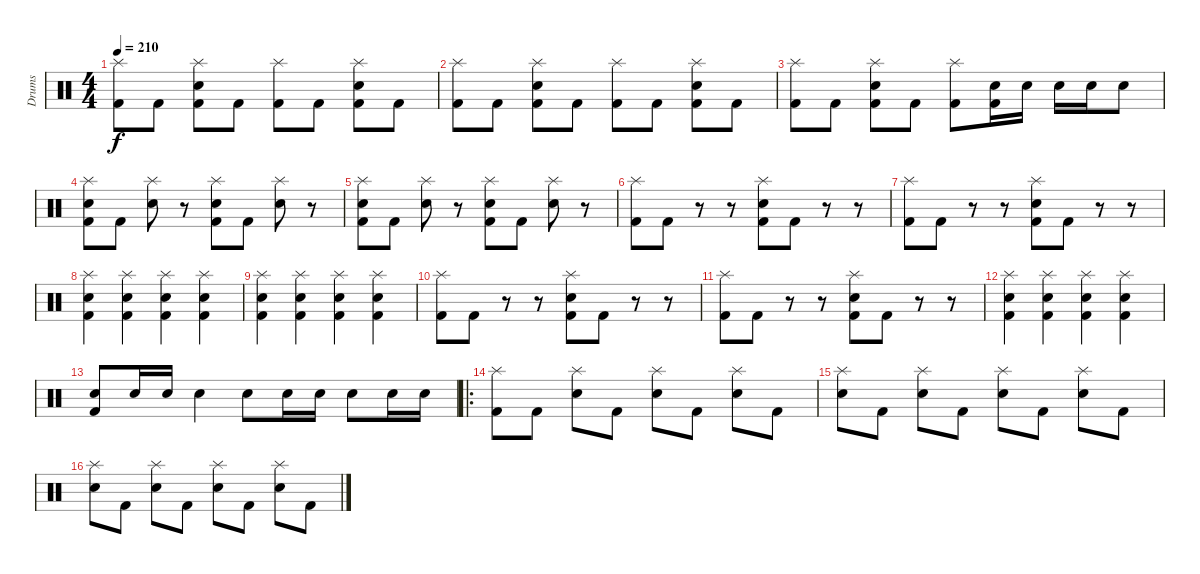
\track ("Drums" "Drums") {instrument percussion}
\staff {score}
\articulation defaults
\ts (4 4)
\tempo 210
\clef neutral
\ks c
("Splash (hit)" "Kick (hit) 2").8{dy f} "Kick (hit) 2".8 ("Splash (hit)" "Snare (hit) 2" "Kick (hit) 2").8 "Kick (hit) 2".8 ("Splash (hit)" "Kick (hit) 2").8 "Kick (hit) 2".8 ("Splash (hit)" "Snare (hit) 2" "Kick (hit) 2").8 "Kick (hit) 2".8 |
("Splash (hit)" "Kick (hit) 2").8 "Kick (hit) 2".8 ("Splash (hit)" "Snare (hit) 2" "Kick (hit) 2").8 "Kick (hit) 2".8 ("Splash (hit)" "Kick (hit) 2").8 "Kick (hit) 2".8 ("Splash (hit)" "Snare (hit) 2" "Kick (hit) 2").8 "Kick (hit) 2".8 |
("Splash (hit)" "Kick (hit) 2").8 "Kick (hit) 2".8 ("Splash (hit)" "Snare (hit) 2" "Kick (hit) 2").8 "Kick (hit) 2".8 ("Splash (hit)" "Kick (hit) 2").8 ("Snare (hit) 2" "Kick (hit) 2").16 "Snare (hit) 2".16 "Snare (hit) 2".16 "Snare (hit) 2".16 "Snare (hit) 2".8 |
("Splash (hit)" "Snare (hit) 2" "Kick (hit) 2").8 "Kick (hit) 2".8 ("Splash (hit)" "Snare (hit) 2").8 r.8 ("Splash (hit)" "Snare (hit) 2" "Kick (hit) 2").8 "Kick (hit) 2".8 ("Splash (hit)" "Snare (hit) 2").8 r.8 |
("Splash (hit)" "Snare (hit) 2" "Kick (hit) 2").8 "Kick (hit) 2".8 ("Splash (hit)" "Snare (hit) 2").8 r.8 ("Splash (hit)" "Snare (hit) 2" "Kick (hit) 2").8 "Kick (hit) 2".8 ("Splash (hit)" "Snare (hit) 2").8 r.8 |
("Splash (hit)" "Kick (hit) 2").8 "Kick (hit) 2".8 r.8 r.8 ("Splash (hit)" "Snare (hit) 2" "Kick (hit) 2").8 "Kick (hit) 2".8 r.8 r.8 |
("Splash (hit)" "Kick (hit) 2").8 "Kick (hit) 2".8 r.8 r.8 ("Splash (hit)" "Snare (hit) 2" "Kick (hit) 2").8 "Kick (hit) 2".8 r.8 r.8 |
("Splash (hit)" "Snare (hit) 2" "Kick (hit) 2").4 ("Splash (hit)" "Snare (hit) 2" "Kick (hit) 2").4 ("Splash (hit)" "Snare (hit) 2" "Kick (hit) 2").4 ("Splash (hit)" "Snare (hit) 2" "Kick (hit) 2").4 |
("Splash (hit)" "Snare (hit) 2" "Kick (hit) 2").4 ("Splash (hit)" "Snare (hit) 2" "Kick (hit) 2").4 ("Splash (hit)" "Snare (hit) 2" "Kick (hit) 2").4 ("Splash (hit)" "Snare (hit) 2" "Kick (hit) 2").4 |
("Splash (hit)" "Kick (hit) 2").8 "Kick (hit) 2".8 r.8 r.8 ("Splash (hit)" "Snare (hit) 2" "Kick (hit) 2").8 "Kick (hit) 2".8 r.8 r.8 |
("Splash (hit)" "Kick (hit) 2").8 "Kick (hit) 2".8 r.8 r.8 ("Splash (hit)" "Snare (hit) 2" "Kick (hit) 2").8 "Kick (hit) 2".8 r.8 r.8 |
("Splash (hit)" "Snare (hit) 2" "Kick (hit) 2").4 ("Splash (hit)" "Snare (hit) 2" "Kick (hit) 2").4 ("Splash (hit)" "Snare (hit) 2" "Kick (hit) 2").4 ("Splash (hit)" "Snare (hit) 2" "Kick (hit) 2").4 |
("Snare (hit) 2" "Kick (hit) 2").8 "Snare (hit) 2".16 "Snare (hit) 2".16 "Snare (hit) 2".4 "Snare (hit) 2".8 "Snare (hit) 2".16 "Snare (hit) 2".16 "Snare (hit) 2".8 "Snare (hit) 2".16 "Snare (hit) 2".16 |
\ro
("Splash (hit)" "Kick (hit) 2").8 "Kick (hit) 2".8 ("Splash (hit)" "Snare (hit) 2").8 "Kick (hit) 2".8 ("Splash (hit)" "Snare (hit) 2").8 "Kick (hit) 2".8 ("Splash (hit)" "Snare (hit) 2").8 "Kick (hit) 2".8 |
("Splash (hit)" "Snare (hit) 2").8 "Kick (hit) 2".8 ("Splash (hit)" "Snare (hit) 2").8 "Kick (hit) 2".8 ("Splash (hit)" "Snare (hit) 2").8 "Kick (hit) 2".8 ("Splash (hit)" "Snare (hit) 2").8 "Kick (hit) 2".8 |
("Splash (hit)" "Snare (hit) 2").8 "Kick (hit) 2".8 ("Splash (hit)" "Snare (hit) 2").8 "Kick (hit) 2".8 ("Splash (hit)" "Snare (hit) 2").8 "Kick (hit) 2".8 ("Splash (hit)" "Snare (hit) 2").8 "Kick (hit) 2".8
